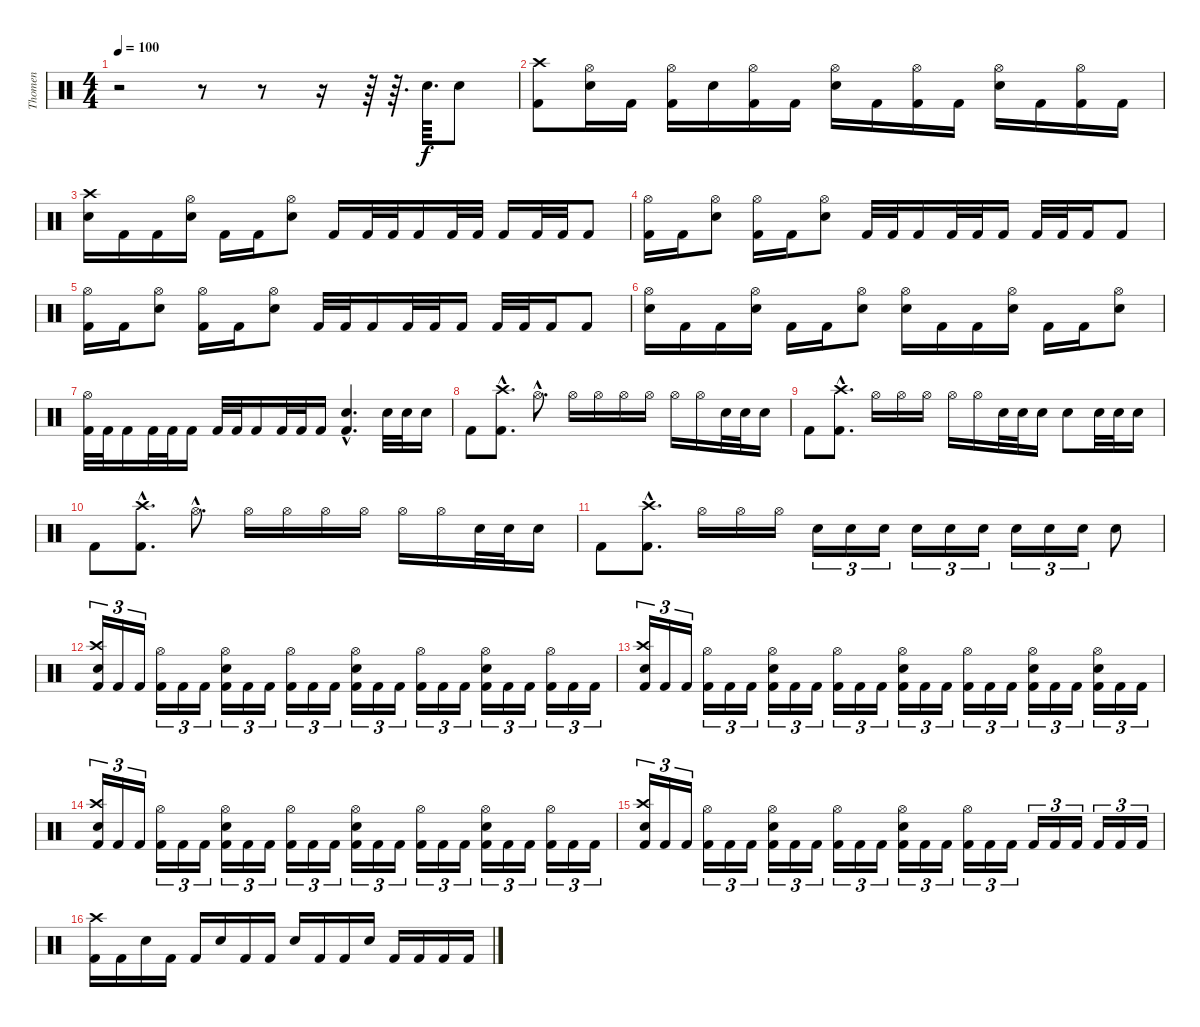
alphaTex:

\track ("Thomen" "Thomen") {instrument percussion}
\staff {score}
\articulation defaults
\ts (4 4)
\tempo 100
\clef neutral
\ks c
r.2{dy f} r.8 r.8 r.16 r.64 r.64{d} "Snare (hit) 2".64{d} "Snare (hit) 2".8 |
("Crash high (hit)" "Kick (hit) 2").8 ("Hi-Hat (open)" "Snare (hit) 2").16 "Kick (hit) 2".16 ("Hi-Hat (open)" "Kick (hit) 2").16 "Snare (hit) 2".16 ("Hi-Hat (open)" "Kick (hit) 2").16 "Kick (hit) 2".16 ("Hi-Hat (open)" "Snare (hit) 2").16 "Kick (hit) 2".16 ("Hi-Hat (open)" "Kick (hit) 2").16 "Kick (hit) 2".16 ("Hi-Hat (open)" "Snare (hit) 2").16 "Kick (hit) 2".16 ("Hi-Hat (open)" "Kick (hit) 2").16 "Kick (hit) 2".16 |
("Crash high (hit)" "Snare (hit) 2").16 "Kick (hit) 2".16 "Kick (hit) 2".16 ("Hi-Hat (open)" "Snare (hit) 2").16 "Kick (hit) 2".16 "Kick (hit) 2".16 ("Hi-Hat (open)" "Snare (hit) 2").8 "Kick (hit) 2".16 "Kick (hit) 2".32 "Kick (hit) 2".32 "Kick (hit) 2".16 "Kick (hit) 2".32 "Kick (hit) 2".32 "Kick (hit) 2".16 "Kick (hit) 2".32 "Kick (hit) 2".32 "Kick (hit) 2".8 |
("Hi-Hat (open)" "Kick (hit) 2").16 "Kick (hit) 2".16 ("Hi-Hat (open)" "Snare (hit) 2").8 ("Hi-Hat (open)" "Kick (hit) 2").16 "Kick (hit) 2".16 ("Hi-Hat (open)" "Snare (hit) 2").8 "Kick (hit) 2".32 "Kick (hit) 2".32 "Kick (hit) 2".16 "Kick (hit) 2".32 "Kick (hit) 2".32 "Kick (hit) 2".16 "Kick (hit) 2".32 "Kick (hit) 2".32 "Kick (hit) 2".16 "Kick (hit) 2".8 |
("Hi-Hat (open)" "Kick (hit) 2").16 "Kick (hit) 2".16 ("Hi-Hat (open)" "Snare (hit) 2").8 ("Hi-Hat (open)" "Kick (hit) 2").16 "Kick (hit) 2".16 ("Hi-Hat (open)" "Snare (hit) 2").8 "Kick (hit) 2".32 "Kick (hit) 2".32 "Kick (hit) 2".16 "Kick (hit) 2".32 "Kick (hit) 2".32 "Kick (hit) 2".16 "Kick (hit) 2".32 "Kick (hit) 2".32 "Kick (hit) 2".16 "Kick (hit) 2".8 |
("Hi-Hat (open)" "Snare (hit) 2").16 "Kick (hit) 2".16 "Kick (hit) 2".16 ("Hi-Hat (open)" "Snare (hit) 2").16 "Kick (hit) 2".16 "Kick (hit) 2".16 ("Hi-Hat (open)" "Snare (hit) 2").8 ("Hi-Hat (open)" "Snare (hit) 2").16 "Kick (hit) 2".16 "Kick (hit) 2".16 ("Hi-Hat (open)" "Snare (hit) 2").16 "Kick (hit) 2".16 "Kick (hit) 2".16 ("Hi-Hat (open)" "Snare (hit) 2").8 |
("Hi-Hat (open)" "Kick (hit) 2").32 "Kick (hit) 2".32 "Kick (hit) 2".16 "Kick (hit) 2".32 "Kick (hit) 2".32 "Kick (hit) 2".16 "Kick (hit) 2".32 "Kick (hit) 2".32 "Kick (hit) 2".16 "Kick (hit) 2".32 "Kick (hit) 2".32 "Kick (hit) 2".16 ("Snare (hit) 2"{hac} "Kick (hit) 2"{hac}).4{d} "Snare (hit) 2".32 "Snare (hit) 2".32 "Snare (hit) 2".16 |
"Kick (hit) 2".8 ("Crash high (hit)"{hac} "Kick (hit) 2"{hac}).8{d} "Hi-Hat (open)"{hac}.8{d} "Hi-Hat (open)".16 "Hi-Hat (open)".16 "Hi-Hat (open)".16 "Hi-Hat (open)".16 "Hi-Hat (open)".16 "Hi-Hat (open)".16 "Snare (hit) 2".32 "Snare (hit) 2".32 "Snare (hit) 2".16 |
"Kick (hit) 2".8 ("Crash high (hit)"{hac} "Kick (hit) 2"{hac}).8{d} "Hi-Hat (open)".16 "Hi-Hat (open)".16 "Hi-Hat (open)".16 "Hi-Hat (open)".16 "Hi-Hat (open)".16 "Snare (hit) 2".32 "Snare (hit) 2".32 "Snare (hit) 2".16 "Snare (hit) 2".8 "Snare (hit) 2".32 "Snare (hit) 2".32 "Snare (hit) 2".16 |
"Kick (hit) 2".8 ("Crash high (hit)"{hac} "Kick (hit) 2"{hac}).8{d} "Hi-Hat (open)"{hac}.8{d} "Hi-Hat (open)".16 "Hi-Hat (open)".16 "Hi-Hat (open)".16 "Hi-Hat (open)".16 "Hi-Hat (open)".16 "Hi-Hat (open)".16 "Snare (hit) 2".32 "Snare (hit) 2".32 "Snare (hit) 2".16 |
"Kick (hit) 2".8 ("Crash high (hit)"{hac} "Kick (hit) 2"{hac}).8{d} "Hi-Hat (open)".16 "Hi-Hat (open)".16 "Hi-Hat (open)".16 "Snare (hit) 2".16{tu (3 2)} "Snare (hit) 2".16{tu (3 2)} "Snare (hit) 2".16{tu (3 2)} "Snare (hit) 2".16{tu (3 2)} "Snare (hit) 2".16{tu (3 2)} "Snare (hit) 2".16{tu (3 2)} "Snare (hit) 2".16{tu (3 2)} "Snare (hit) 2".16{tu (3 2)} "Snare (hit) 2".16{tu (3 2)} "Snare (hit) 2".8 |
("Crash high (hit)" "Snare (hit) 2" "Kick (hit) 2").16{tu (3 2)} "Kick (hit) 2".16{tu (3 2)} "Kick (hit) 2".16{tu (3 2)} ("Hi-Hat (open)" "Kick (hit) 2").16{tu (3 2)} "Kick (hit) 2".16{tu (3 2)} "Kick (hit) 2".16{tu (3 2)} ("Hi-Hat (open)" "Snare (hit) 2" "Kick (hit) 2").16{tu (3 2)} "Kick (hit) 2".16{tu (3 2)} "Kick (hit) 2".16{tu (3 2)} ("Hi-Hat (open)" "Kick (hit) 2").16{tu (3 2)} "Kick (hit) 2".16{tu (3 2)} "Kick (hit) 2".16{tu (3 2)} ("Hi-Hat (open)" "Snare (hit) 2" "Kick (hit) 2").16{tu (3 2)} "Kick (hit) 2".16{tu (3 2)} "Kick (hit) 2".16{tu (3 2)} ("Hi-Hat (open)" "Kick (hit) 2").16{tu (3 2)} "Kick (hit) 2".16{tu (3 2)} "Kick (hit) 2".16{tu (3 2)} ("Hi-Hat (open)" "Snare (hit) 2" "Kick (hit) 2").16{tu (3 2)} "Kick (hit) 2".16{tu (3 2)} "Kick (hit) 2".16{tu (3 2)} ("Hi-Hat (open)" "Kick (hit) 2").16{tu (3 2)} "Kick (hit) 2".16{tu (3 2)} "Kick (hit) 2".16{tu (3 2)} |
("Crash high (hit)" "Snare (hit) 2" "Kick (hit) 2").16{tu (3 2)} "Kick (hit) 2".16{tu (3 2)} "Kick (hit) 2".16{tu (3 2)} ("Hi-Hat (open)" "Kick (hit) 2").16{tu (3 2)} "Kick (hit) 2".16{tu (3 2)} "Kick (hit) 2".16{tu (3 2)} ("Hi-Hat (open)" "Snare (hit) 2" "Kick (hit) 2").16{tu (3 2)} "Kick (hit) 2".16{tu (3 2)} "Kick (hit) 2".16{tu (3 2)} ("Hi-Hat (open)" "Kick (hit) 2").16{tu (3 2)} "Kick (hit) 2".16{tu (3 2)} "Kick (hit) 2".16{tu (3 2)} ("Hi-Hat (open)" "Snare (hit) 2" "Kick (hit) 2").16{tu (3 2)} "Kick (hit) 2".16{tu (3 2)} "Kick (hit) 2".16{tu (3 2)} ("Hi-Hat (open)" "Kick (hit) 2").16{tu (3 2)} "Kick (hit) 2".16{tu (3 2)} "Kick (hit) 2".16{tu (3 2)} ("Hi-Hat (open)" "Snare (hit) 2" "Kick (hit) 2").16{tu (3 2)} "Kick (hit) 2".16{tu (3 2)} "Kick (hit) 2".16{tu (3 2)} ("Hi-Hat (open)" "Snare (hit) 2" "Kick (hit) 2").16{tu (3 2)} "Kick (hit) 2".16{tu (3 2)} "Kick (hit) 2".16{tu (3 2)} |
("Crash high (hit)" "Snare (hit) 2" "Kick (hit) 2").16{tu (3 2)} "Kick (hit) 2".16{tu (3 2)} "Kick (hit) 2".16{tu (3 2)} ("Hi-Hat (open)" "Kick (hit) 2").16{tu (3 2)} "Kick (hit) 2".16{tu (3 2)} "Kick (hit) 2".16{tu (3 2)} ("Hi-Hat (open)" "Snare (hit) 2" "Kick (hit) 2").16{tu (3 2)} "Kick (hit) 2".16{tu (3 2)} "Kick (hit) 2".16{tu (3 2)} ("Hi-Hat (open)" "Kick (hit) 2").16{tu (3 2)} "Kick (hit) 2".16{tu (3 2)} "Kick (hit) 2".16{tu (3 2)} ("Hi-Hat (open)" "Snare (hit) 2" "Kick (hit) 2").16{tu (3 2)} "Kick (hit) 2".16{tu (3 2)} "Kick (hit) 2".16{tu (3 2)} ("Hi-Hat (open)" "Kick (hit) 2").16{tu (3 2)} "Kick (hit) 2".16{tu (3 2)} "Kick (hit) 2".16{tu (3 2)} ("Hi-Hat (open)" "Snare (hit) 2" "Kick (hit) 2").16{tu (3 2)} "Kick (hit) 2".16{tu (3 2)} "Kick (hit) 2".16{tu (3 2)} ("Hi-Hat (open)" "Kick (hit) 2").16{tu (3 2)} "Kick (hit) 2".16{tu (3 2)} "Kick (hit) 2".16{tu (3 2)} |
("Crash high (hit)" "Snare (hit) 2" "Kick (hit) 2").16{tu (3 2)} "Kick (hit) 2".16{tu (3 2)} "Kick (hit) 2".16{tu (3 2)} ("Hi-Hat (open)" "Kick (hit) 2").16{tu (3 2)} "Kick (hit) 2".16{tu (3 2)} "Kick (hit) 2".16{tu (3 2)} ("Hi-Hat (open)" "Snare (hit) 2" "Kick (hit) 2").16{tu (3 2)} "Kick (hit) 2".16{tu (3 2)} "Kick (hit) 2".16{tu (3 2)} ("Hi-Hat (open)" "Kick (hit) 2").16{tu (3 2)} "Kick (hit) 2".16{tu (3 2)} "Kick (hit) 2".16{tu (3 2)} ("Hi-Hat (open)" "Snare (hit) 2" "Kick (hit) 2").16{tu (3 2)} "Kick (hit) 2".16{tu (3 2)} "Kick (hit) 2".16{tu (3 2)} ("Hi-Hat (open)" "Kick (hit) 2").16{tu (3 2)} "Kick (hit) 2".16{tu (3 2)} "Kick (hit) 2".16{tu (3 2)} "Kick (hit) 2".16{tu (3 2)} "Kick (hit) 2".16{tu (3 2)} "Kick (hit) 2".16{tu (3 2)} "Kick (hit) 2".16{tu (3 2)} "Kick (hit) 2".16{tu (3 2)} "Kick (hit) 2".16{tu (3 2)} |
("Crash high (hit)" "Kick (hit) 2").16 "Kick (hit) 2".16 "Snare (hit) 2".16 "Kick (hit) 2".16 "Kick (hit) 2".16 "Snare (hit) 2".16 "Kick (hit) 2".16 "Kick (hit) 2".16 "Snare (hit) 2".16 "Kick (hit) 2".16 "Kick (hit) 2".16 "Snare (hit) 2".16 "Kick (hit) 2".16 "Kick (hit) 2".16 "Kick (hit) 2".16 "Kick (hit) 2".16
